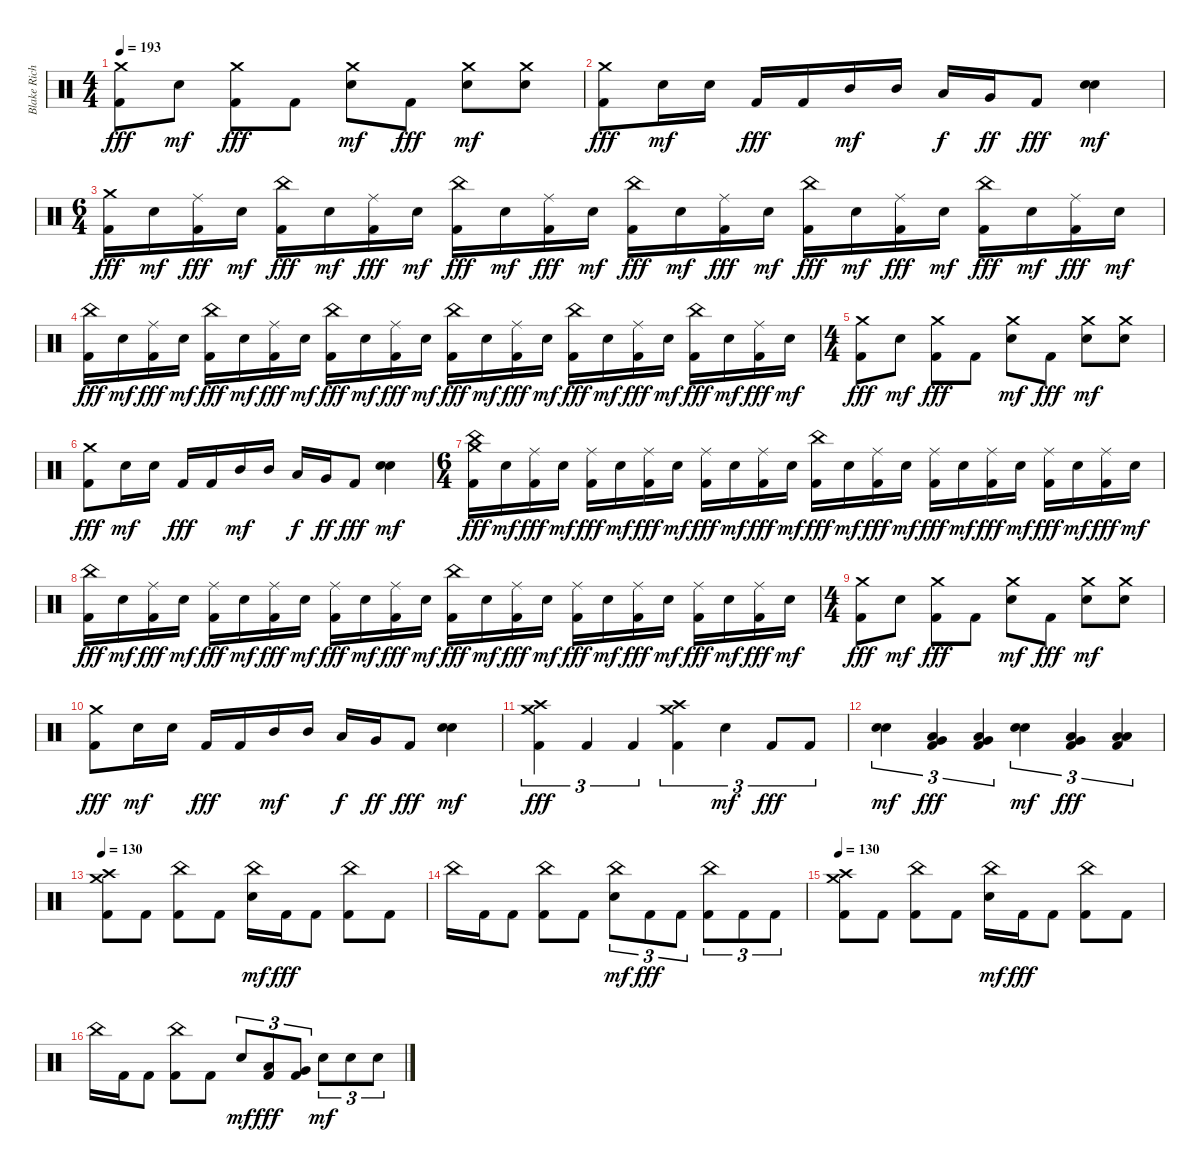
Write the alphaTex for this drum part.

\track ("Blake Richardson" "Blake Rich") {instrument percussion}
\staff {score}
\articulation defaults
\ts (4 4)
\tempo 193
\clef neutral
\ks c
("Crash medium (hit)" "Kick (hit) 2").8{dy fff} "Electric Snare (hit)".8{dy mf} ("Crash medium (hit)" "Kick (hit) 2").8{dy fff} "Kick (hit) 2".8 ("Crash medium (hit)" "Electric Snare (hit)").8{dy mf} "Kick (hit) 2".8{dy fff} ("Crash medium (hit)" "Electric Snare (hit)").8{dy mf} ("Crash medium (hit)" "Electric Snare (hit)").8 |
("Crash medium (hit)" "Kick (hit) 2").8{dy fff} "Electric Snare (hit)".16{dy mf} "Electric Snare (hit)".16 "Kick (hit) 2".16{dy fff} "Kick (hit) 2".16 "Mid Tom (hit)".16{dy mf} "Mid Tom (hit)".16 "Low Tom (hit)".16{dy f} "Very Low Tom (hit)".16{dy ff} "Kick (hit) 2".8{dy fff} ("Electric Snare (hit)" "Electric Snare (hit)").4{bu 480 dy mf} |
\ts (6 4)
("Crash medium (hit)" "Kick (hit) 2").16{dy fff} "Electric Snare (hit)".16{dy mf} ("Ride (middle)" "Kick (hit) 2").16{dy fff} "Electric Snare (hit)".16{dy mf} ("China (hit)" "Kick (hit) 2").16{dy fff} "Electric Snare (hit)".16{dy mf} ("Ride (middle)" "Kick (hit) 2").16{dy fff} "Electric Snare (hit)".16{dy mf} ("China (hit)" "Kick (hit) 2").16{dy fff} "Electric Snare (hit)".16{dy mf} ("Ride (middle)" "Kick (hit) 2").16{dy fff} "Electric Snare (hit)".16{dy mf} ("China (hit)" "Kick (hit) 2").16{dy fff} "Electric Snare (hit)".16{dy mf} ("Ride (middle)" "Kick (hit) 2").16{dy fff} "Electric Snare (hit)".16{dy mf} ("China (hit)" "Kick (hit) 2").16{dy fff} "Electric Snare (hit)".16{dy mf} ("Ride (middle)" "Kick (hit) 2").16{dy fff} "Electric Snare (hit)".16{dy mf} ("China (hit)" "Kick (hit) 2").16{dy fff} "Electric Snare (hit)".16{dy mf} ("Ride (middle)" "Kick (hit) 2").16{dy fff} "Electric Snare (hit)".16{dy mf} |
("China (hit)" "Kick (hit) 2").16{dy fff} "Electric Snare (hit)".16{dy mf} ("Ride (middle)" "Kick (hit) 2").16{dy fff} "Electric Snare (hit)".16{dy mf} ("China (hit)" "Kick (hit) 2").16{dy fff} "Electric Snare (hit)".16{dy mf} ("Ride (middle)" "Kick (hit) 2").16{dy fff} "Electric Snare (hit)".16{dy mf} ("China (hit)" "Kick (hit) 2").16{dy fff} "Electric Snare (hit)".16{dy mf} ("Ride (middle)" "Kick (hit) 2").16{dy fff} "Electric Snare (hit)".16{dy mf} ("China (hit)" "Kick (hit) 2").16{dy fff} "Electric Snare (hit)".16{dy mf} ("Ride (middle)" "Kick (hit) 2").16{dy fff} "Electric Snare (hit)".16{dy mf} ("China (hit)" "Kick (hit) 2").16{dy fff} "Electric Snare (hit)".16{dy mf} ("Ride (middle)" "Kick (hit) 2").16{dy fff} "Electric Snare (hit)".16{dy mf} ("China (hit)" "Kick (hit) 2").16{dy fff} "Electric Snare (hit)".16{dy mf} ("Ride (middle)" "Kick (hit) 2").16{dy fff} "Electric Snare (hit)".16{dy mf} |
\ts (4 4)
("Crash medium (hit)" "Kick (hit) 2").8{dy fff} "Electric Snare (hit)".8{dy mf} ("Crash medium (hit)" "Kick (hit) 2").8{dy fff} "Kick (hit) 2".8 ("Crash medium (hit)" "Electric Snare (hit)").8{dy mf} "Kick (hit) 2".8{dy fff} ("Crash medium (hit)" "Electric Snare (hit)").8{dy mf} ("Crash medium (hit)" "Electric Snare (hit)").8 |
("Crash medium (hit)" "Kick (hit) 2").8{dy fff} "Electric Snare (hit)".16{dy mf} "Electric Snare (hit)".16 "Kick (hit) 2".16{dy fff} "Kick (hit) 2".16 "Mid Tom (hit)".16{dy mf} "Mid Tom (hit)".16 "Low Tom (hit)".16{dy f} "Very Low Tom (hit)".16{dy ff} "Kick (hit) 2".8{dy fff} ("Electric Snare (hit)" "Electric Snare (hit)").4{bu 480 dy mf} |
\ts (6 4)
("China (hit)" "Crash medium (hit)" "Kick (hit) 2").16{dy fff} "Electric Snare (hit)".16{dy mf} ("Ride (middle)" "Kick (hit) 2").16{dy fff} "Electric Snare (hit)".16{dy mf} ("Ride (middle)" "Kick (hit) 2").16{dy fff} "Electric Snare (hit)".16{dy mf} ("Ride (middle)" "Kick (hit) 2").16{dy fff} "Electric Snare (hit)".16{dy mf} ("Ride (middle)" "Kick (hit) 2").16{dy fff} "Electric Snare (hit)".16{dy mf} ("Ride (middle)" "Kick (hit) 2").16{dy fff} "Electric Snare (hit)".16{dy mf} ("China (hit)" "Kick (hit) 2").16{dy fff} "Electric Snare (hit)".16{dy mf} ("Ride (middle)" "Kick (hit) 2").16{dy fff} "Electric Snare (hit)".16{dy mf} ("Ride (middle)" "Kick (hit) 2").16{dy fff} "Electric Snare (hit)".16{dy mf} ("Ride (middle)" "Kick (hit) 2").16{dy fff} "Electric Snare (hit)".16{dy mf} ("Ride (middle)" "Kick (hit) 2").16{dy fff} "Electric Snare (hit)".16{dy mf} ("Ride (middle)" "Kick (hit) 2").16{dy fff} "Electric Snare (hit)".16{dy mf} |
("China (hit)" "Kick (hit) 2").16{dy fff} "Electric Snare (hit)".16{dy mf} ("Ride (middle)" "Kick (hit) 2").16{dy fff} "Electric Snare (hit)".16{dy mf} ("Ride (middle)" "Kick (hit) 2").16{dy fff} "Electric Snare (hit)".16{dy mf} ("Ride (middle)" "Kick (hit) 2").16{dy fff} "Electric Snare (hit)".16{dy mf} ("Ride (middle)" "Kick (hit) 2").16{dy fff} "Electric Snare (hit)".16{dy mf} ("Ride (middle)" "Kick (hit) 2").16{dy fff} "Electric Snare (hit)".16{dy mf} ("China (hit)" "Kick (hit) 2").16{dy fff} "Electric Snare (hit)".16{dy mf} ("Ride (middle)" "Kick (hit) 2").16{dy fff} "Electric Snare (hit)".16{dy mf} ("Ride (middle)" "Kick (hit) 2").16{dy fff} "Electric Snare (hit)".16{dy mf} ("Ride (middle)" "Kick (hit) 2").16{dy fff} "Electric Snare (hit)".16{dy mf} ("Ride (middle)" "Kick (hit) 2").16{dy fff} "Electric Snare (hit)".16{dy mf} ("Ride (middle)" "Kick (hit) 2").16{dy fff} "Electric Snare (hit)".16{dy mf} |
\ts (4 4)
("Crash medium (hit)" "Kick (hit) 2").8{dy fff} "Electric Snare (hit)".8{dy mf} ("Crash medium (hit)" "Kick (hit) 2").8{dy fff} "Kick (hit) 2".8 ("Crash medium (hit)" "Electric Snare (hit)").8{dy mf} "Kick (hit) 2".8{dy fff} ("Crash medium (hit)" "Electric Snare (hit)").8{dy mf} ("Crash medium (hit)" "Electric Snare (hit)").8 |
("Crash medium (hit)" "Kick (hit) 2").8{dy fff} "Electric Snare (hit)".16{dy mf} "Electric Snare (hit)".16 "Kick (hit) 2".16{dy fff} "Kick (hit) 2".16 "Mid Tom (hit)".16{dy mf} "Mid Tom (hit)".16 "Low Tom (hit)".16{dy f} "Very Low Tom (hit)".16{dy ff} "Kick (hit) 2".8{dy fff} ("Electric Snare (hit)" "Electric Snare (hit)").4{bu 480 dy mf} |
("Crash medium (hit)" "Crash high (hit)" "Kick (hit) 2").4{tu (3 2) dy fff} "Kick (hit) 2".4{tu (3 2)} "Kick (hit) 2".4{tu (3 2)} ("Crash medium (hit)" "Crash high (hit)" "Kick (hit) 2").4{tu (3 2)} "Electric Snare (hit)".4{tu (3 2) dy mf} "Kick (hit) 2".8{tu (3 2) dy fff} "Kick (hit) 2".8{tu (3 2)} |
("Electric Snare (hit)" "Electric Snare (hit)").4{tu (3 2) bu 480 dy mf} ("Very Low Tom (hit)" "Low Tom (hit)" "Kick (hit) 2").4{tu (3 2) dy fff} ("Low Floor Tom (hit)" "Very Low Tom (hit)" "Kick (hit) 2").4{tu (3 2)} ("Electric Snare (hit)" "Electric Snare (hit)").4{tu (3 2) bu 480 dy mf} ("Low Floor Tom (hit)" "Very Low Tom (hit)" "Kick (hit) 2").4{tu (3 2) dy fff} ("Low Floor Tom (hit)" "Low Floor Tom (hit)" "Kick (hit) 2").4{tu (3 2)} |
\tempo 130
("Crash high (hit)" "Crash medium (hit)" "Kick (hit) 2").8 "Kick (hit) 2".8 ("China (hit)" "Kick (hit) 2").8 "Kick (hit) 2".8 ("China (hit)" "Electric Snare (hit)").16{dy mf} "Kick (hit) 2".16{dy fff} "Kick (hit) 2".8 ("China (hit)" "Kick (hit) 2").8 "Kick (hit) 2".8 |
"China (hit)".16 "Kick (hit) 2".16 "Kick (hit) 2".8 ("China (hit)" "Kick (hit) 2").8 "Kick (hit) 2".8 ("China (hit)" "Electric Snare (hit)").8{tu (3 2) dy mf} "Kick (hit) 2".8{tu (3 2) dy fff} "Kick (hit) 2".8{tu (3 2)} ("China (hit)" "Kick (hit) 2").8{tu (3 2)} "Kick (hit) 2".8{tu (3 2)} "Kick (hit) 2".8{tu (3 2)} |
\tempo 130
("Crash high (hit)" "Crash medium (hit)" "Kick (hit) 2").8 "Kick (hit) 2".8 ("China (hit)" "Kick (hit) 2").8 "Kick (hit) 2".8 ("China (hit)" "Electric Snare (hit)").16{dy mf} "Kick (hit) 2".16{dy fff} "Kick (hit) 2".8 ("China (hit)" "Kick (hit) 2").8 "Kick (hit) 2".8 |
"China (hit)".16 "Kick (hit) 2".16 "Kick (hit) 2".8 ("China (hit)" "Kick (hit) 2").8 "Kick (hit) 2".8 "Electric Snare (hit)".8{tu (3 2) dy mf} ("Low Tom (hit)" "Kick (hit) 2").8{tu (3 2) dy fff} ("Very Low Tom (hit)" "Kick (hit) 2").8{tu (3 2)} "Electric Snare (hit)".8{tu (3 2) dy mf} "Electric Snare (hit)".8{tu (3 2)} "Electric Snare (hit)".8{tu (3 2)}
